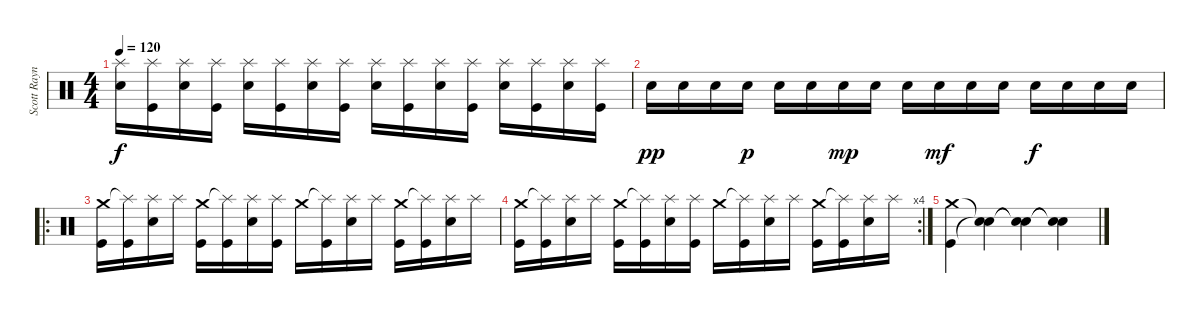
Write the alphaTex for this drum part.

\track ("Scott Raynor" "Scott Rayn") {instrument percussion}
\staff {score}
\articulation defaults
\ts (4 4)
\tempo 120
\clef neutral
\ks c
("Splash (hit)" "Snare (hit) 2").16{dy f} ("Splash (hit)" "Kick (hit)").16 ("Splash (hit)" "Snare (hit) 2").16 ("Splash (hit)" "Kick (hit)").16 ("Splash (hit)" "Snare (hit) 2").16 ("Splash (hit)" "Kick (hit)").16 ("Splash (hit)" "Snare (hit) 2").16 ("Splash (hit)" "Kick (hit)").16 ("Splash (hit)" "Snare (hit) 2").16 ("Splash (hit)" "Kick (hit)").16 ("Splash (hit)" "Snare (hit) 2").16 ("Splash (hit)" "Kick (hit)").16 ("Splash (hit)" "Snare (hit) 2").16 ("Splash (hit)" "Kick (hit)").16 ("Splash (hit)" "Snare (hit) 2").16 ("Splash (hit)" "Kick (hit)").16 |
"Snare (hit) 2".16{dy pp} "Snare (hit) 2".16 "Snare (hit) 2".16 "Snare (hit) 2".16{dy p} "Snare (hit) 2".16 "Snare (hit) 2".16 "Snare (hit) 2".16{dy mp} "Snare (hit) 2".16 "Snare (hit) 2".16 "Snare (hit) 2".16{dy mf} "Snare (hit) 2".16 "Snare (hit) 2".16 "Snare (hit) 2".16{dy f} "Snare (hit) 2".16 "Snare (hit) 2".16 "Snare (hit) 2".16 |
\ro
("Crash medium (hit)" "Kick (hit)").16 ("Splash (hit)"{t} "Kick (hit)").16 ("Splash (hit)" "Snare (hit) 2").16 "Splash (hit)".16 ("Crash medium (hit)" "Kick (hit)").16 ("Splash (hit)"{t} "Kick (hit)").16 ("Splash (hit)" "Snare (hit) 2").16 ("Splash (hit)" "Kick (hit)").16 "Crash medium (hit)".16 ("Splash (hit)"{t} "Kick (hit)").16 ("Splash (hit)" "Snare (hit) 2").16 "Splash (hit)".16 ("Crash medium (hit)" "Kick (hit)").16 ("Splash (hit)"{t} "Kick (hit)").16 ("Splash (hit)" "Snare (hit) 2").16 "Splash (hit)".16 |
\rc 4
("Crash medium (hit)" "Kick (hit)").16 ("Splash (hit)"{t} "Kick (hit)").16 ("Splash (hit)" "Snare (hit) 2").16 "Splash (hit)".16 ("Crash medium (hit)" "Kick (hit)").16 ("Splash (hit)"{t} "Kick (hit)").16 ("Splash (hit)" "Snare (hit) 2").16 ("Splash (hit)" "Kick (hit)").16 "Crash medium (hit)".16 ("Splash (hit)"{t} "Kick (hit)").16 ("Splash (hit)" "Snare (hit) 2").16 "Splash (hit)".16 ("Crash medium (hit)" "Kick (hit)").16 ("Splash (hit)"{t} "Kick (hit)").16 ("Splash (hit)" "Snare (hit) 2").16 "Splash (hit)".16 |
("Crash medium (hit)" "Kick (hit)").4 ("Snare (hit)"{t} "Snare (hit)"{t}).4 ("Snare (hit)"{t} "Snare (hit)"{t}).4 ("Snare (hit)"{t} "Snare (hit)"{t}).4
